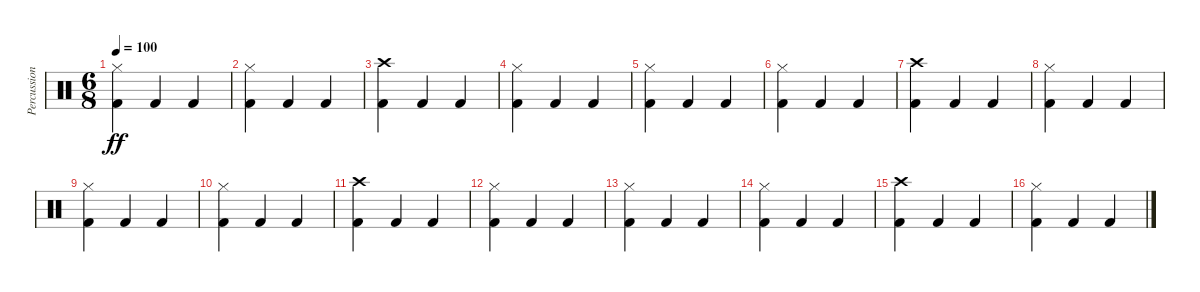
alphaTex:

\track ("Percussion" "Percussion") {instrument percussion}
\staff {score}
\articulation defaults
\ts (6 8)
\tempo 100
\clef neutral
\ks c
("Kick (hit) 2" "Hi-Hat (closed)").4{dy ff} "Kick (hit) 2".4 "Kick (hit) 2".4 |
("Kick (hit) 2" "Hi-Hat (closed)").4 "Kick (hit) 2".4 "Kick (hit) 2".4 |
("Kick (hit) 2" "Crash high (hit)").4 "Kick (hit) 2".4 "Kick (hit) 2".4 |
("Kick (hit) 2" "Hi-Hat (closed)").4 "Kick (hit) 2".4 "Kick (hit) 2".4 |
("Kick (hit) 2" "Hi-Hat (closed)").4 "Kick (hit) 2".4 "Kick (hit) 2".4 |
("Kick (hit) 2" "Hi-Hat (closed)").4 "Kick (hit) 2".4 "Kick (hit) 2".4 |
("Kick (hit) 2" "Crash high (hit)").4 "Kick (hit) 2".4 "Kick (hit) 2".4 |
("Kick (hit) 2" "Hi-Hat (closed)").4 "Kick (hit) 2".4 "Kick (hit) 2".4 |
("Kick (hit) 2" "Hi-Hat (closed)").4 "Kick (hit) 2".4 "Kick (hit) 2".4 |
("Kick (hit) 2" "Hi-Hat (closed)").4 "Kick (hit) 2".4 "Kick (hit) 2".4 |
("Kick (hit) 2" "Crash high (hit)").4 "Kick (hit) 2".4 "Kick (hit) 2".4 |
("Kick (hit) 2" "Hi-Hat (closed)").4 "Kick (hit) 2".4 "Kick (hit) 2".4 |
("Kick (hit) 2" "Hi-Hat (closed)").4 "Kick (hit) 2".4 "Kick (hit) 2".4 |
("Kick (hit) 2" "Hi-Hat (closed)").4 "Kick (hit) 2".4 "Kick (hit) 2".4 |
("Kick (hit) 2" "Crash high (hit)").4 "Kick (hit) 2".4 "Kick (hit) 2".4 |
("Kick (hit) 2" "Hi-Hat (closed)").4 "Kick (hit) 2".4 "Kick (hit) 2".4
